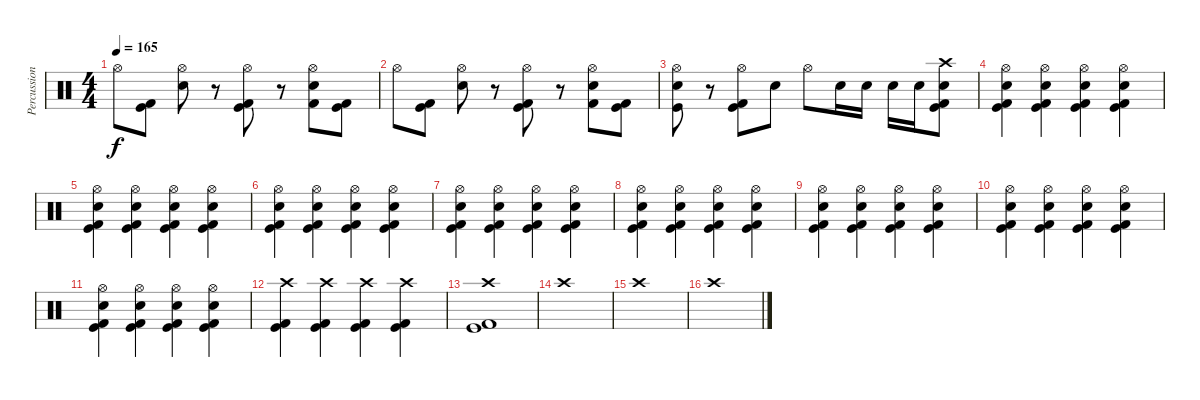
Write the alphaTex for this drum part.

\track ("Percussions" "Percussion") {instrument percussion}
\staff {score}
\articulation defaults
\ts (4 4)
\tempo 165
\clef neutral
\ks c "Hi-Hat (open)".8{dy f}
("Kick (hit) 2" "Kick (hit)").8 ("Snare (hit) 2" "Hi-Hat (open)").8 r.8 ("Kick (hit) 2" "Kick (hit)" "Hi-Hat (open)").8 r.8 ("Kick (hit) 2" "Snare (hit) 2" "Hi-Hat (open)").8 ("Kick (hit) 2" "Kick (hit)").8 |
"Hi-Hat (open)".8 ("Kick (hit) 2" "Kick (hit)").8 ("Snare (hit) 2" "Hi-Hat (open)").8 r.8 ("Kick (hit) 2" "Kick (hit)" "Hi-Hat (open)").8 r.8 ("Kick (hit) 2" "Snare (hit) 2" "Hi-Hat (open)").8 ("Kick (hit) 2" "Kick (hit)").8 |
("Snare (hit) 2" "Kick (hit)" "Hi-Hat (open)").8 r.8 ("Kick (hit) 2" "Kick (hit)" "Hi-Hat (open)").8 "Snare (hit) 2".8 "Hi-Hat (open)".8 "Snare (hit) 2".16 "Snare (hit) 2".16 "Snare (hit) 2".16 "Snare (hit) 2".16 ("Kick (hit) 2" "Kick (hit)" "Snare (hit) 2" "Crash high (hit)").8 |
("Snare (hit) 2" "Kick (hit)" "Kick (hit) 2" "Hi-Hat (open)").4 ("Snare (hit) 2" "Kick (hit)" "Kick (hit) 2" "Hi-Hat (open)").4 ("Snare (hit) 2" "Kick (hit)" "Kick (hit) 2" "Hi-Hat (open)").4 ("Snare (hit) 2" "Kick (hit)" "Kick (hit) 2" "Hi-Hat (open)").4 |
("Snare (hit) 2" "Kick (hit)" "Kick (hit) 2" "Hi-Hat (open)").4 ("Snare (hit) 2" "Kick (hit)" "Kick (hit) 2" "Hi-Hat (open)").4 ("Snare (hit) 2" "Kick (hit)" "Kick (hit) 2" "Hi-Hat (open)").4 ("Snare (hit) 2" "Kick (hit)" "Kick (hit) 2" "Hi-Hat (open)").4 |
("Snare (hit) 2" "Kick (hit)" "Kick (hit) 2" "Hi-Hat (open)").4 ("Snare (hit) 2" "Kick (hit)" "Kick (hit) 2" "Hi-Hat (open)").4 ("Snare (hit) 2" "Kick (hit)" "Kick (hit) 2" "Hi-Hat (open)").4 ("Snare (hit) 2" "Kick (hit)" "Kick (hit) 2" "Hi-Hat (open)").4 |
("Snare (hit) 2" "Kick (hit)" "Kick (hit) 2" "Hi-Hat (open)").4 ("Snare (hit) 2" "Kick (hit)" "Kick (hit) 2" "Hi-Hat (open)").4 ("Snare (hit) 2" "Kick (hit)" "Kick (hit) 2" "Hi-Hat (open)").4 ("Snare (hit) 2" "Kick (hit)" "Kick (hit) 2" "Hi-Hat (open)").4 |
("Snare (hit) 2" "Kick (hit)" "Kick (hit) 2" "Hi-Hat (open)").4 ("Snare (hit) 2" "Kick (hit)" "Kick (hit) 2" "Hi-Hat (open)").4 ("Snare (hit) 2" "Kick (hit)" "Kick (hit) 2" "Hi-Hat (open)").4 ("Snare (hit) 2" "Kick (hit)" "Kick (hit) 2" "Hi-Hat (open)").4 |
("Snare (hit) 2" "Kick (hit)" "Kick (hit) 2" "Hi-Hat (open)").4 ("Snare (hit) 2" "Kick (hit)" "Kick (hit) 2" "Hi-Hat (open)").4 ("Snare (hit) 2" "Kick (hit)" "Kick (hit) 2" "Hi-Hat (open)").4 ("Snare (hit) 2" "Kick (hit)" "Kick (hit) 2" "Hi-Hat (open)").4 |
("Snare (hit) 2" "Kick (hit)" "Kick (hit) 2" "Hi-Hat (open)").4 ("Snare (hit) 2" "Kick (hit)" "Kick (hit) 2" "Hi-Hat (open)").4 ("Snare (hit) 2" "Kick (hit)" "Kick (hit) 2" "Hi-Hat (open)").4 ("Snare (hit) 2" "Kick (hit)" "Kick (hit) 2" "Hi-Hat (open)").4 |
("Snare (hit) 2" "Kick (hit)" "Kick (hit) 2" "Hi-Hat (open)").4 ("Snare (hit) 2" "Kick (hit)" "Kick (hit) 2" "Hi-Hat (open)").4 ("Snare (hit) 2" "Kick (hit)" "Kick (hit) 2" "Hi-Hat (open)").4 ("Snare (hit) 2" "Kick (hit)" "Kick (hit) 2" "Hi-Hat (open)").4 |
("Crash high (hit)" "Kick (hit)" "Kick (hit) 2").4 ("Crash high (hit)" "Kick (hit)" "Kick (hit) 2").4 ("Crash high (hit)" "Kick (hit)" "Kick (hit) 2").4 ("Crash high (hit)" "Kick (hit)" "Kick (hit) 2").4 |
("Crash high (hit)" "Kick (hit)" "Kick (hit) 2").1 |
"Crash high (hit)".1 |
"Crash high (hit)".1 |
"Crash high (hit)".1
